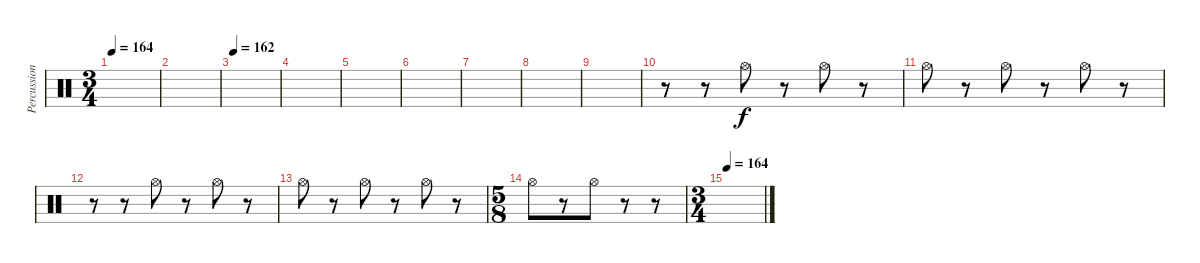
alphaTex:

\track ("Percussion" "Percussion") {instrument percussion}
\staff {score}
\articulation defaults
\ts (3 4)
\tempo 164
\clef neutral
\ks c
|
|
\tempo 162
|
|
|
|
|
|
|
r.8 r.8 "Hi-Hat (open)".8 r.8 "Hi-Hat (open)".8 r.8 |
"Hi-Hat (open)".8 r.8 "Hi-Hat (open)".8 r.8 "Hi-Hat (open)".8 r.8 |
r.8 r.8 "Hi-Hat (open)".8 r.8 "Hi-Hat (open)".8 r.8 |
"Hi-Hat (open)".8 r.8 "Hi-Hat (open)".8 r.8 "Hi-Hat (open)".8 r.8 |
\ts (5 8)
"Hi-Hat (open)".8 r.8 "Hi-Hat (open)".8 r.8 r.8 |
\ts (3 4)
\tempo 164
